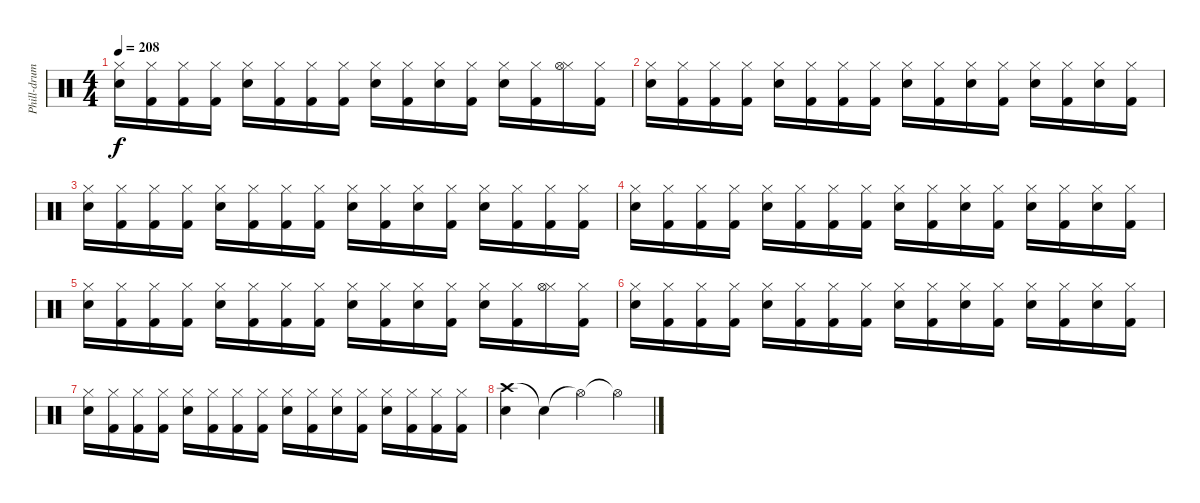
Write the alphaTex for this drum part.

\track ("Phill-drum" "Phill-drum") {instrument percussion}
\staff {score}
\articulation defaults
\ts (4 4)
\tempo 208
\clef neutral
\ks c
("Hi-Hat (closed)" "Electric Snare (hit)").16{dy f} ("Hi-Hat (closed)" "Kick (hit) 2").16 ("Hi-Hat (closed)" "Kick (hit) 2").16 ("Hi-Hat (closed)" "Kick (hit) 2").16 ("Hi-Hat (closed)" "Electric Snare (hit)").16 ("Hi-Hat (closed)" "Kick (hit) 2").16 ("Hi-Hat (closed)" "Kick (hit) 2").16 ("Hi-Hat (closed)" "Kick (hit) 2").16 ("Hi-Hat (closed)" "Electric Snare (hit)").16 ("Hi-Hat (closed)" "Kick (hit) 2").16 ("Hi-Hat (closed)" "Electric Snare (hit)").16 ("Hi-Hat (closed)" "Kick (hit) 2").16 ("Hi-Hat (closed)" "Electric Snare (hit)").16 ("Hi-Hat (closed)" "Kick (hit) 2").16 ("Hi-Hat (closed)" "Hi-Hat (open)").16 ("Hi-Hat (closed)" "Kick (hit) 2").16 |
("Hi-Hat (closed)" "Electric Snare (hit)").16 ("Hi-Hat (closed)" "Kick (hit) 2").16 ("Hi-Hat (closed)" "Kick (hit) 2").16 ("Hi-Hat (closed)" "Kick (hit) 2").16 ("Hi-Hat (closed)" "Electric Snare (hit)").16 ("Hi-Hat (closed)" "Kick (hit) 2").16 ("Hi-Hat (closed)" "Kick (hit) 2").16 ("Hi-Hat (closed)" "Kick (hit) 2").16 ("Hi-Hat (closed)" "Electric Snare (hit)").16 ("Hi-Hat (closed)" "Kick (hit) 2").16 ("Hi-Hat (closed)" "Electric Snare (hit)").16 ("Hi-Hat (closed)" "Kick (hit) 2").16 ("Hi-Hat (closed)" "Electric Snare (hit)").16 ("Hi-Hat (closed)" "Kick (hit) 2").16 ("Hi-Hat (closed)" "Electric Snare (hit)").16 ("Hi-Hat (closed)" "Kick (hit) 2").16 |
("Hi-Hat (closed)" "Electric Snare (hit)").16 ("Hi-Hat (closed)" "Kick (hit) 2").16 ("Hi-Hat (closed)" "Kick (hit) 2").16 ("Hi-Hat (closed)" "Kick (hit) 2").16 ("Hi-Hat (closed)" "Electric Snare (hit)").16 ("Hi-Hat (closed)" "Kick (hit) 2").16 ("Hi-Hat (closed)" "Kick (hit) 2").16 ("Hi-Hat (closed)" "Kick (hit) 2").16 ("Hi-Hat (closed)" "Electric Snare (hit)").16 ("Hi-Hat (closed)" "Kick (hit) 2").16 ("Hi-Hat (closed)" "Electric Snare (hit)").16 ("Hi-Hat (closed)" "Kick (hit) 2").16 ("Hi-Hat (closed)" "Electric Snare (hit)").16 ("Hi-Hat (closed)" "Kick (hit) 2").16 ("Hi-Hat (closed)" "Kick (hit) 2").16 ("Hi-Hat (closed)" "Kick (hit) 2").16 |
("Hi-Hat (closed)" "Electric Snare (hit)").16 ("Hi-Hat (closed)" "Kick (hit) 2").16 ("Hi-Hat (closed)" "Kick (hit) 2").16 ("Hi-Hat (closed)" "Kick (hit) 2").16 ("Hi-Hat (closed)" "Electric Snare (hit)").16 ("Hi-Hat (closed)" "Kick (hit) 2").16 ("Hi-Hat (closed)" "Kick (hit) 2").16 ("Hi-Hat (closed)" "Kick (hit) 2").16 ("Hi-Hat (closed)" "Electric Snare (hit)").16 ("Hi-Hat (closed)" "Kick (hit) 2").16 ("Hi-Hat (closed)" "Electric Snare (hit)").16 ("Hi-Hat (closed)" "Kick (hit) 2").16 ("Hi-Hat (closed)" "Electric Snare (hit)").16 ("Hi-Hat (closed)" "Kick (hit) 2").16 ("Hi-Hat (closed)" "Electric Snare (hit)").16 ("Hi-Hat (closed)" "Kick (hit) 2").16 |
("Hi-Hat (closed)" "Electric Snare (hit)").16 ("Hi-Hat (closed)" "Kick (hit) 2").16 ("Hi-Hat (closed)" "Kick (hit) 2").16 ("Hi-Hat (closed)" "Kick (hit) 2").16 ("Hi-Hat (closed)" "Electric Snare (hit)").16 ("Hi-Hat (closed)" "Kick (hit) 2").16 ("Hi-Hat (closed)" "Kick (hit) 2").16 ("Hi-Hat (closed)" "Kick (hit) 2").16 ("Hi-Hat (closed)" "Electric Snare (hit)").16 ("Hi-Hat (closed)" "Kick (hit) 2").16 ("Hi-Hat (closed)" "Electric Snare (hit)").16 ("Hi-Hat (closed)" "Kick (hit) 2").16 ("Hi-Hat (closed)" "Electric Snare (hit)").16 ("Hi-Hat (closed)" "Kick (hit) 2").16 ("Hi-Hat (closed)" "Hi-Hat (open)").16 ("Hi-Hat (closed)" "Kick (hit) 2").16 |
("Hi-Hat (closed)" "Electric Snare (hit)").16 ("Hi-Hat (closed)" "Kick (hit) 2").16 ("Hi-Hat (closed)" "Kick (hit) 2").16 ("Hi-Hat (closed)" "Kick (hit) 2").16 ("Hi-Hat (closed)" "Electric Snare (hit)").16 ("Hi-Hat (closed)" "Kick (hit) 2").16 ("Hi-Hat (closed)" "Kick (hit) 2").16 ("Hi-Hat (closed)" "Kick (hit) 2").16 ("Hi-Hat (closed)" "Electric Snare (hit)").16 ("Hi-Hat (closed)" "Kick (hit) 2").16 ("Hi-Hat (closed)" "Electric Snare (hit)").16 ("Hi-Hat (closed)" "Kick (hit) 2").16 ("Hi-Hat (closed)" "Electric Snare (hit)").16 ("Hi-Hat (closed)" "Kick (hit) 2").16 ("Hi-Hat (closed)" "Electric Snare (hit)").16 ("Hi-Hat (closed)" "Kick (hit) 2").16 |
("Hi-Hat (closed)" "Electric Snare (hit)").16 ("Hi-Hat (closed)" "Kick (hit) 2").16 ("Hi-Hat (closed)" "Kick (hit) 2").16 ("Hi-Hat (closed)" "Kick (hit) 2").16 ("Hi-Hat (closed)" "Electric Snare (hit)").16 ("Hi-Hat (closed)" "Kick (hit) 2").16 ("Hi-Hat (closed)" "Kick (hit) 2").16 ("Hi-Hat (closed)" "Kick (hit) 2").16 ("Hi-Hat (closed)" "Electric Snare (hit)").16 ("Hi-Hat (closed)" "Kick (hit) 2").16 ("Hi-Hat (closed)" "Electric Snare (hit)").16 ("Hi-Hat (closed)" "Kick (hit) 2").16 ("Hi-Hat (closed)" "Electric Snare (hit)").16 ("Hi-Hat (closed)" "Kick (hit) 2").16 ("Hi-Hat (closed)" "Kick (hit) 2").16 ("Hi-Hat (closed)" "Kick (hit) 2").16 |
("Crash high (hit)" "Electric Snare (hit)").4 "Snare (hit)"{t}.4 "Hi-Hat (open)"{t}.4 "Hi-Hat (open)"{t}.4
